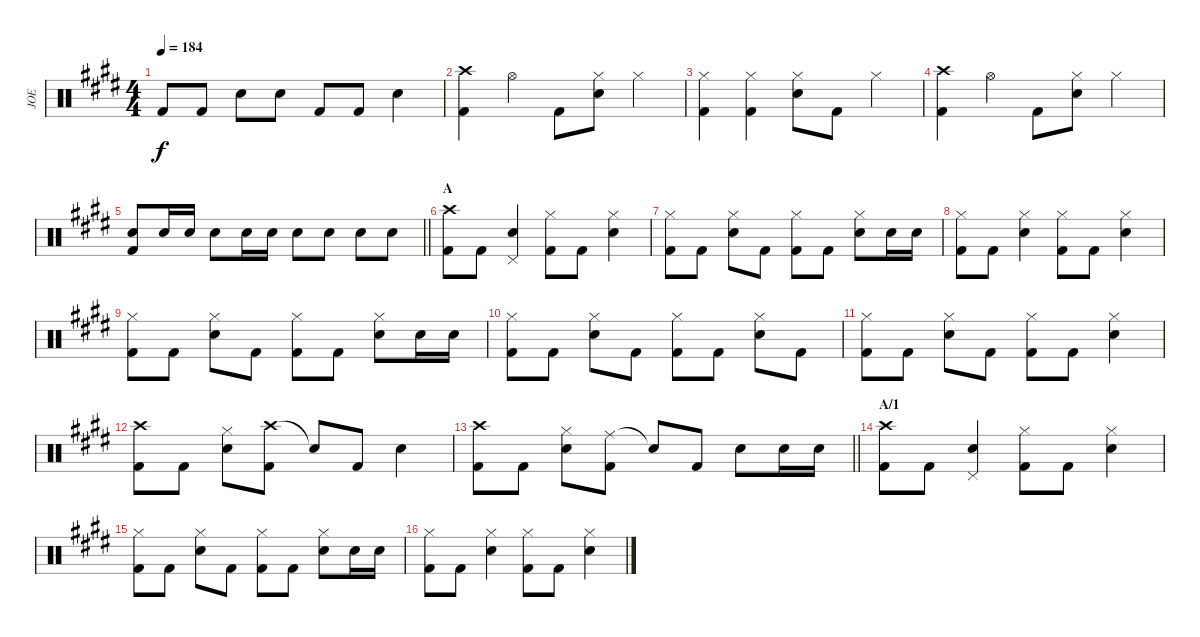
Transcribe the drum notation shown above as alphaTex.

\track ("JOE" "JOE") {instrument percussion}
\staff {score}
\articulation defaults
\ts (4 4)
\tempo 184
\clef neutral
\ks e "Kick (hit) 2".8{dy f} "Kick (hit) 2".8 "Snare (hit) 2".8 "Snare (hit) 2".8 "Kick (hit) 2".8 "Kick (hit) 2".8 "Snare (hit) 2".4
|
("Crash high (hit)" "Kick (hit) 2").4 "Hi-Hat (open)".4 "Kick (hit) 2".8 ("Hi-Hat (closed)" "Snare (hit) 2").8 "Hi-Hat (closed)".4 |
("Hi-Hat (closed)" "Kick (hit) 2").4 ("Hi-Hat (closed)" "Kick (hit) 2").4 ("Hi-Hat (closed)" "Snare (hit) 2").8 "Kick (hit) 2".8 "Hi-Hat (closed)".4 |
("Crash high (hit)" "Kick (hit) 2").4 "Hi-Hat (open)".4 "Kick (hit) 2".8 ("Hi-Hat (closed)" "Snare (hit) 2").8 "Hi-Hat (closed)".4 |
\barLineRight lightlight
("Snare (hit) 2" "Kick (hit) 2").8 "Snare (hit) 2".16 "Snare (hit) 2".16 "Snare (hit) 2".8 "Snare (hit) 2".16 "Snare (hit) 2".16 "Snare (hit) 2".8 "Snare (hit) 2".8 "Snare (hit) 2".8 "Snare (hit) 2".8 |
\section ("" "A ")
("Crash high (hit)" "Kick (hit) 2").8 "Kick (hit) 2".8 ("Pedal Hi-Hat (hit)" "Snare (hit) 2").4 ("Hi-Hat (closed)" "Kick (hit) 2").8 "Kick (hit) 2".8 ("Hi-Hat (closed)" "Snare (hit) 2").4 |
("Hi-Hat (closed)" "Kick (hit) 2").8 "Kick (hit) 2".8 ("Hi-Hat (closed)" "Snare (hit) 2").8 "Kick (hit) 2".8 ("Hi-Hat (closed)" "Kick (hit) 2").8 "Kick (hit) 2".8 ("Hi-Hat (closed)" "Snare (hit) 2").8 "Snare (hit) 2".16 "Snare (hit) 2".16 |
("Hi-Hat (closed)" "Kick (hit) 2").8 "Kick (hit) 2".8 ("Hi-Hat (closed)" "Snare (hit) 2").4 ("Hi-Hat (closed)" "Kick (hit) 2").8 "Kick (hit) 2".8 ("Hi-Hat (closed)" "Snare (hit) 2").4 |
("Hi-Hat (closed)" "Kick (hit) 2").8 "Kick (hit) 2".8 ("Hi-Hat (closed)" "Snare (hit) 2").8 "Kick (hit) 2".8 ("Hi-Hat (closed)" "Kick (hit) 2").8 "Kick (hit) 2".8 ("Hi-Hat (closed)" "Snare (hit) 2").8 "Snare (hit) 2".16 "Snare (hit) 2".16 |
("Hi-Hat (closed)" "Kick (hit) 2").8 "Kick (hit) 2".8 ("Hi-Hat (closed)" "Snare (hit) 2").8 "Kick (hit) 2".8 ("Hi-Hat (closed)" "Kick (hit) 2").8 "Kick (hit) 2".8 ("Hi-Hat (closed)" "Snare (hit) 2").8 "Kick (hit) 2".8 |
("Hi-Hat (closed)" "Kick (hit) 2").8 "Kick (hit) 2".8 ("Hi-Hat (closed)" "Snare (hit) 2").8 "Kick (hit) 2".8 ("Hi-Hat (closed)" "Kick (hit) 2").8 "Kick (hit) 2".8 ("Hi-Hat (closed)" "Snare (hit) 2").4 |
("Crash high (hit)" "Kick (hit) 2").8 "Kick (hit) 2".8 ("Hi-Hat (closed)" "Snare (hit) 2").8 ("Crash high (hit)" "Kick (hit) 2").8 "Snare (hit)"{t}.8 "Kick (hit) 2".8 "Snare (hit) 2".4 |
\barLineRight lightlight
("Crash high (hit)" "Kick (hit) 2").8 "Kick (hit) 2".8 ("Hi-Hat (closed)" "Snare (hit) 2").8 ("Ride (middle)" "Kick (hit) 2").8 "Snare (hit)"{t}.8 "Kick (hit) 2".8 "Snare (hit) 2".8 "Snare (hit) 2".16 "Snare (hit) 2".16 |
\section ("" "A/1")
("Crash high (hit)" "Kick (hit) 2").8 "Kick (hit) 2".8 ("Pedal Hi-Hat (hit)" "Snare (hit) 2").4 ("Hi-Hat (closed)" "Kick (hit) 2").8 "Kick (hit) 2".8 ("Hi-Hat (closed)" "Snare (hit) 2").4 |
("Hi-Hat (closed)" "Kick (hit) 2").8 "Kick (hit) 2".8 ("Hi-Hat (closed)" "Snare (hit) 2").8 "Kick (hit) 2".8 ("Hi-Hat (closed)" "Kick (hit) 2").8 "Kick (hit) 2".8 ("Hi-Hat (closed)" "Snare (hit) 2").8 "Snare (hit) 2".16 "Snare (hit) 2".16 |
("Hi-Hat (closed)" "Kick (hit) 2").8 "Kick (hit) 2".8 ("Hi-Hat (closed)" "Snare (hit) 2").4 ("Hi-Hat (closed)" "Kick (hit) 2").8 "Kick (hit) 2".8 ("Hi-Hat (closed)" "Snare (hit) 2").4
